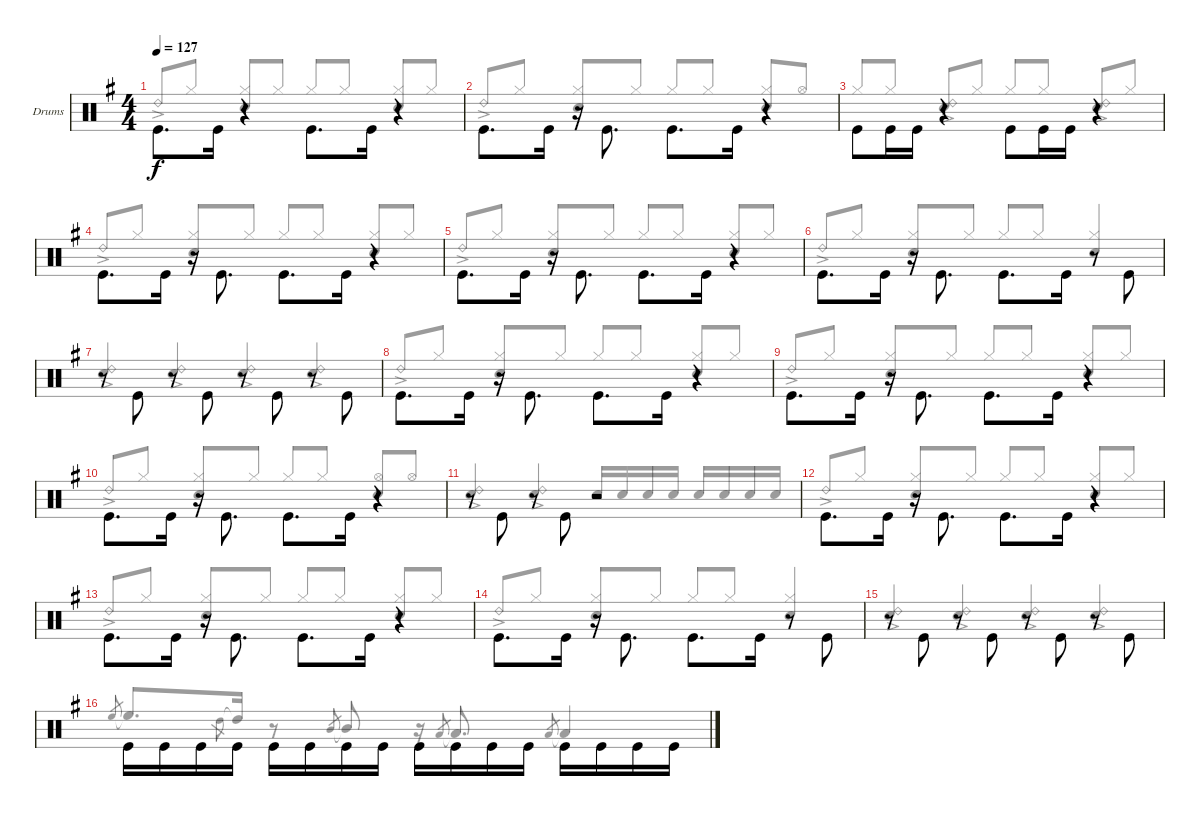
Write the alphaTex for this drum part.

\defaultSystemsLayout 4
\bracketExtendMode groupsimilarinstruments
\firstSystemTrackNameOrientation horizontal
\otherSystemsTrackNameOrientation horizontal
\track ("Drums" "Drums") {instrument percussion}
\staff {score}
\articulation defaults
\voice
\ts (4 4)
\tempo 127
\clef neutral
\scale
0.957125
\ks g "Kick (hit)".8{d dy f beam invert} "Kick (hit)".16
r.4 "Kick (hit)".8{d beam invert} "Kick (hit)".16 r.4 |
\scale
1.04288 "Kick (hit)".8{d beam invert} "Kick (hit)".16 r.16{beam invert} "Kick (hit)".8{d beam invert} "Kick (hit)".8{d beam invert} "Kick (hit)".16 r.4 |
\scale
0.957125 "Kick (hit)".8{beam invert} "Kick (hit)".16 "Kick (hit)".16 r.4{beam invert} "Kick (hit)".8{beam invert} "Kick (hit)".16 "Kick (hit)".16 r.4{beam invert} |
\scale
1.04288 "Kick (hit)".8{d beam invert} "Kick (hit)".16 r.16{beam invert} "Kick (hit)".8{d beam invert} "Kick (hit)".8{d beam invert} "Kick (hit)".16 r.4 |
\scale
0.957125 "Kick (hit)".8{d beam invert} "Kick (hit)".16 r.16{beam invert} "Kick (hit)".8{d beam invert} "Kick (hit)".8{d beam invert} "Kick (hit)".16 r.4 |
\scale
1.04288 "Kick (hit)".8{d beam invert} "Kick (hit)".16 r.16{beam invert} "Kick (hit)".8{d beam invert} "Kick (hit)".8{d beam invert} "Kick (hit)".16 r.8 "Kick (hit)".8{beam invert} |
\scale
1.07314 r.8{beam invert} "Kick (hit)".8{beam invert} r.8{beam invert} "Kick (hit)".8{beam invert} r.8{beam invert} "Kick (hit)".8{beam invert} r.8{beam invert} "Kick (hit)".8{beam invert} |
\scale
0.92686 "Kick (hit)".8{d beam invert} "Kick (hit)".16 r.16{beam invert} "Kick (hit)".8{d beam invert} "Kick (hit)".8{d beam invert} "Kick (hit)".16 r.4 |
\scale
1.04288 "Kick (hit)".8{d beam invert} "Kick (hit)".16 r.16{beam invert} "Kick (hit)".8{d beam invert} "Kick (hit)".8{d beam invert} "Kick (hit)".16 r.4 |
\scale
0.957125 "Kick (hit)".8{d beam invert} "Kick (hit)".16 r.16{beam invert} "Kick (hit)".8{d beam invert} "Kick (hit)".8{d beam invert} "Kick (hit)".16 r.4 |
\scale
1.04288 r.8{beam invert} "Kick (hit)".8{beam invert} r.8{beam invert} "Kick (hit)".8{beam invert} r.2{beam invert} |
\scale
0.957125 "Kick (hit)".8{d beam invert} "Kick (hit)".16 r.16{beam invert} "Kick (hit)".8{d beam invert} "Kick (hit)".8{d beam invert} "Kick (hit)".16 r.4 |
\scale
1.04288 "Kick (hit)".8{d beam invert} "Kick (hit)".16 r.16{beam invert} "Kick (hit)".8{d beam invert} "Kick (hit)".8{d beam invert} "Kick (hit)".16 r.4 |
\scale
0.957125 "Kick (hit)".8{d beam invert} "Kick (hit)".16 r.16{beam invert} "Kick (hit)".8{d beam invert} "Kick (hit)".8{d beam invert} "Kick (hit)".16 r.8 "Kick (hit)".8{beam invert} |
\scale
1.04288 r.8{beam invert} "Kick (hit)".8{beam invert} r.8{beam invert} "Kick (hit)".8{beam invert} r.8{beam invert} "Kick (hit)".8{beam invert} r.8{beam invert} "Kick (hit)".8{beam invert} |
\scale
0.957125 "Kick (hit)".16{beam invert} "Kick (hit)".16 "Kick (hit)".16 "Kick (hit)".16 "Kick (hit)".16{beam invert} "Kick (hit)".16 "Kick (hit)".16 "Kick (hit)".16 "Kick (hit)".16{beam invert} "Kick (hit)".16 "Kick (hit)".16 "Kick (hit)".16 "Kick (hit)".16{beam invert} "Kick (hit)".16 "Kick (hit)".16 "Kick (hit)".16
\voice
\clef neutral
\ottava regular
\simile none
\scale
0.957125
\ks g "Ride (bell) 2"{ac}.8{dy f beam invert} "Hi-Hat (closed)".8
("Hi-Hat (closed)" "Snare (hit) 2").8{beam invert} "Hi-Hat (closed)".8 "Hi-Hat (closed)".8{beam invert} "Hi-Hat (closed)".8 ("Hi-Hat (closed)" "Snare (hit) 2").8{beam invert} "Hi-Hat (closed)".8 |
\scale
1.04288 "Ride (bell) 2"{ac}.8{beam invert} "Hi-Hat (closed)".8 ("Hi-Hat (closed)" "Snare (hit) 2").8{beam invert} "Hi-Hat (closed)".8 "Hi-Hat (closed)".8{beam invert} "Hi-Hat (closed)".8 ("Hi-Hat (closed)" "Snare (hit) 2").8{beam invert} "Hi-Hat (open)".8 |
\scale
0.957125 "Hi-Hat (closed)".8{beam invert} "Hi-Hat (closed)".8 ("Snare (hit) 2" "Ride (bell) 2"{ac}).8{beam invert} "Hi-Hat (closed)".8 "Hi-Hat (closed)".8{beam invert} "Hi-Hat (closed)".8 ("Snare (hit) 2" "Ride (bell) 2"{ac}).8{beam invert} "Hi-Hat (closed)".8 |
\scale
1.04288 "Ride (bell) 2"{ac}.8{beam invert} "Hi-Hat (closed)".8 ("Hi-Hat (closed)" "Snare (hit) 2").8{beam invert} "Hi-Hat (closed)".8 "Hi-Hat (closed)".8{beam invert} "Hi-Hat (closed)".8 ("Hi-Hat (closed)" "Snare (hit) 2").8{beam invert} "Hi-Hat (closed)".8 |
\scale
0.957125 "Ride (bell) 2"{ac}.8{beam invert} "Hi-Hat (closed)".8 ("Hi-Hat (closed)" "Snare (hit) 2").8{beam invert} "Hi-Hat (closed)".8 "Hi-Hat (closed)".8{beam invert} "Hi-Hat (closed)".8 ("Hi-Hat (closed)" "Snare (hit) 2").8{beam invert} "Hi-Hat (closed)".8 |
\scale
1.04288 "Ride (bell) 2"{ac}.8{beam invert} "Hi-Hat (closed)".8 ("Hi-Hat (closed)" "Snare (hit) 2").8{beam invert} "Hi-Hat (closed)".8 "Hi-Hat (closed)".8{beam invert} "Hi-Hat (closed)".8 ("Hi-Hat (closed)" "Snare (hit) 2").4{beam invert} |
\scale
1.07314 ("Ride (bell) 2"{ac} "Snare (hit) 2").4{beam invert} ("Ride (bell) 2"{ac} "Snare (hit) 2").4{beam invert} ("Ride (bell) 2"{ac} "Snare (hit) 2").4{beam invert} ("Ride (bell) 2"{ac} "Snare (hit) 2").4{beam invert} |
\scale
0.92686 "Ride (bell) 2"{ac}.8{beam invert} "Hi-Hat (closed)".8 ("Hi-Hat (closed)" "Snare (hit) 2").8{beam invert} "Hi-Hat (closed)".8 "Hi-Hat (closed)".8{beam invert} "Hi-Hat (closed)".8 ("Hi-Hat (closed)" "Snare (hit) 2").8{beam invert} "Hi-Hat (closed)".8 |
\scale
1.04288 "Ride (bell) 2"{ac}.8{beam invert} "Hi-Hat (closed)".8 ("Hi-Hat (closed)" "Snare (hit) 2").8{beam invert} "Hi-Hat (closed)".8 "Hi-Hat (closed)".8{beam invert} "Hi-Hat (closed)".8 ("Hi-Hat (closed)" "Snare (hit) 2").8{beam invert} "Hi-Hat (closed)".8 |
\scale
0.957125 "Ride (bell) 2"{ac}.8{beam invert} "Hi-Hat (closed)".8 ("Hi-Hat (closed)" "Snare (hit) 2").8{beam invert} "Hi-Hat (closed)".8 "Hi-Hat (closed)".8{beam invert} "Hi-Hat (closed)".8 ("Hi-Hat (open)" "Snare (hit) 2").8{beam invert} "Hi-Hat (open)".8 |
\scale
1.04288 ("Ride (bell) 2"{ac} "Snare (hit) 2").4{beam invert} ("Ride (bell) 2"{ac} "Snare (hit) 2").4{beam invert} "Snare (hit) 2".16{beam invert} "Snare (hit) 2".16 "Snare (hit) 2".16 "Snare (hit) 2".16 "Snare (hit) 2".16{beam invert} "Snare (hit) 2".16 "Snare (hit) 2".16 "Snare (hit) 2".16 |
\scale
0.957125 "Ride (bell) 2"{ac}.8{beam invert} "Hi-Hat (closed)".8 ("Hi-Hat (closed)" "Snare (hit) 2").8{beam invert} "Hi-Hat (closed)".8 "Hi-Hat (closed)".8{beam invert} "Hi-Hat (closed)".8 ("Hi-Hat (closed)" "Snare (hit) 2").8{beam invert} "Hi-Hat (closed)".8 |
\scale
1.04288 "Ride (bell) 2"{ac}.8{beam invert} "Hi-Hat (closed)".8 ("Hi-Hat (closed)" "Snare (hit) 2").8{beam invert} "Hi-Hat (closed)".8 "Hi-Hat (closed)".8{beam invert} "Hi-Hat (closed)".8 ("Hi-Hat (closed)" "Snare (hit) 2").8{beam invert} "Hi-Hat (closed)".8 |
\scale
0.957125 "Ride (bell) 2"{ac}.8{beam invert} "Hi-Hat (closed)".8 ("Hi-Hat (closed)" "Snare (hit) 2").8{beam invert} "Hi-Hat (closed)".8 "Hi-Hat (closed)".8{beam invert} "Hi-Hat (closed)".8 ("Hi-Hat (closed)" "Snare (hit) 2").4{beam invert} |
\scale
1.04288 ("Ride (bell) 2"{ac} "Snare (hit) 2").4{beam invert} ("Ride (bell) 2"{ac} "Snare (hit) 2").4{beam invert} ("Ride (bell) 2"{ac} "Snare (hit) 2").4{beam invert} ("Ride (bell) 2"{ac} "Snare (hit) 2").4{beam invert} |
\scale
0.957125 "High Floor Tom (hit)".8{gr beam invert} "High Floor Tom (hit)"{t}.8{d beam invert} "High Tom (hit)".8{gr} "High Tom (hit)"{t}.16 r.8{beam invert} "Mid Tom (hit)".8{gr beam invert} "Mid Tom (hit)"{t}.8{beam invert} r.16{beam invert} "Low Tom (hit)".8{gr beam invert} "Low Tom (hit)"{t}.8{d beam invert} "Low Tom (hit)".8{gr beam invert} "Low Tom (hit)"{t}.4{beam invert}
